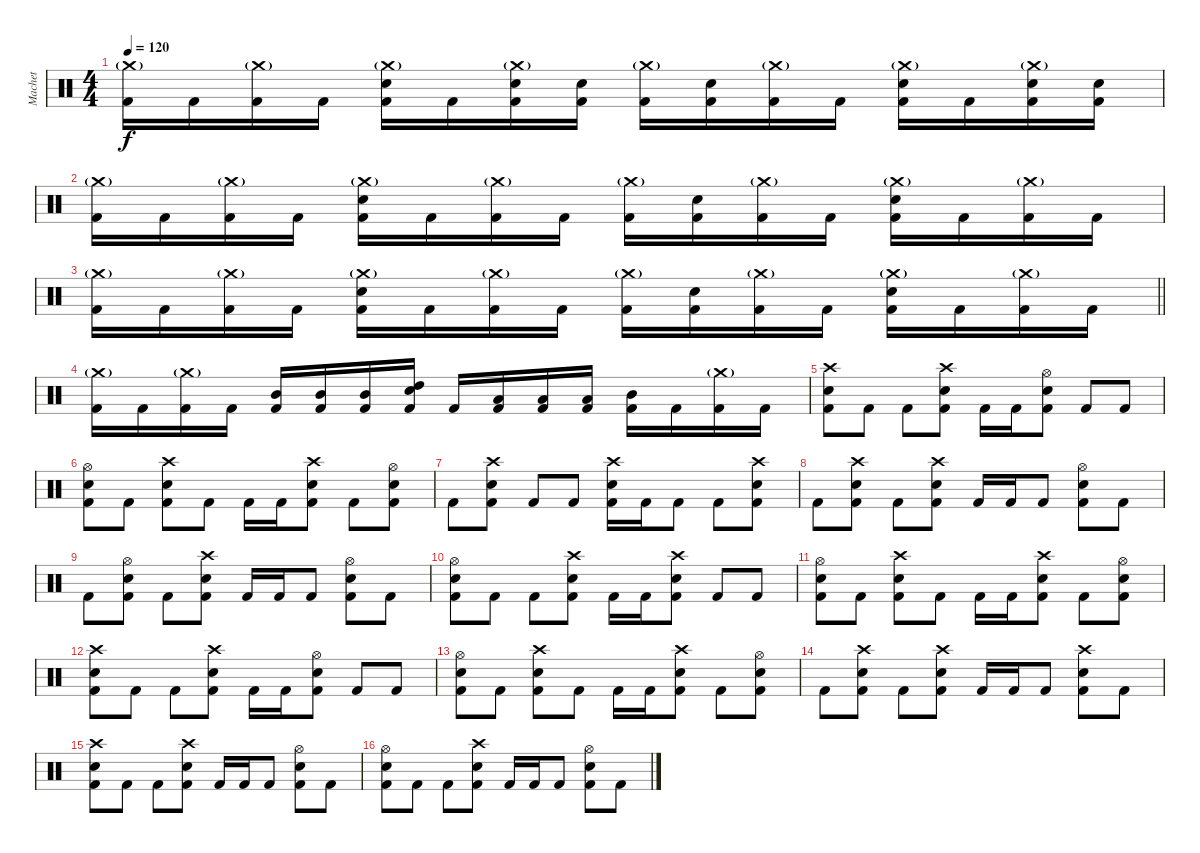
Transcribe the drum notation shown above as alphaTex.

\track ("Machet" "Machet") {instrument percussion}
\staff {score}
\articulation defaults
\ts (4 4)
\tempo 120
\clef neutral
\ks c
("Crash medium (hit)"{g} "Kick (hit) 2").16{dy f} "Kick (hit) 2".16 ("Crash medium (hit)"{g} "Kick (hit) 2").16 "Kick (hit) 2".16 ("Crash medium (hit)"{g} "Snare (hit) 2" "Kick (hit) 2").16 "Kick (hit) 2".16 ("Crash medium (hit)"{g} "Snare (hit) 2" "Kick (hit) 2").16 ("Snare (hit) 2" "Kick (hit) 2").16 ("Crash medium (hit)"{g} "Kick (hit) 2").16 ("Snare (hit) 2" "Kick (hit) 2").16 ("Crash medium (hit)"{g} "Kick (hit) 2").16 "Kick (hit) 2".16 ("Crash medium (hit)"{g} "Snare (hit) 2" "Kick (hit) 2").16 "Kick (hit) 2".16 ("Crash medium (hit)"{g} "Snare (hit) 2" "Kick (hit) 2").16 ("Snare (hit) 2" "Kick (hit) 2").16 |
("Crash medium (hit)"{g} "Kick (hit) 2").16 "Kick (hit) 2".16 ("Crash medium (hit)"{g} "Kick (hit) 2").16 "Kick (hit) 2".16 ("Crash medium (hit)"{g} "Snare (hit) 2" "Kick (hit) 2").16 "Kick (hit) 2".16 ("Crash medium (hit)"{g} "Kick (hit) 2").16 "Kick (hit) 2".16 ("Crash medium (hit)"{g} "Kick (hit) 2").16 ("Snare (hit) 2" "Kick (hit) 2").16 ("Crash medium (hit)"{g} "Kick (hit) 2").16 "Kick (hit) 2".16 ("Crash medium (hit)"{g} "Snare (hit) 2" "Kick (hit) 2").16 "Kick (hit) 2".16 ("Crash medium (hit)"{g} "Kick (hit) 2").16 "Kick (hit) 2".16 |
\barLineRight lightlight
("Crash medium (hit)"{g} "Kick (hit) 2").16 "Kick (hit) 2".16 ("Crash medium (hit)"{g} "Kick (hit) 2").16 "Kick (hit) 2".16 ("Crash medium (hit)"{g} "Snare (hit) 2" "Kick (hit) 2").16 "Kick (hit) 2".16 ("Crash medium (hit)"{g} "Kick (hit) 2").16 "Kick (hit) 2".16 ("Crash medium (hit)"{g} "Kick (hit) 2").16 ("Snare (hit) 2" "Kick (hit) 2").16 ("Crash medium (hit)"{g} "Kick (hit) 2").16 "Kick (hit) 2".16 ("Crash medium (hit)"{g} "Snare (hit) 2" "Kick (hit) 2").16 "Kick (hit) 2".16 ("Crash medium (hit)"{g} "Kick (hit) 2").16 "Kick (hit) 2".16 |
("Crash medium (hit)"{g} "Kick (hit) 2").16 "Kick (hit) 2".16 ("Crash medium (hit)"{g} "Kick (hit) 2").16 "Kick (hit) 2".16 ("Mid Tom (hit)" "Kick (hit) 2").16 ("Mid Tom (hit)" "Kick (hit) 2").16 ("Mid Tom (hit)" "Kick (hit) 2").16 ("High Tom (hit)" "Snare (hit) 2" "Kick (hit) 2").16 "Kick (hit) 2".16 ("Low Tom (hit)" "Kick (hit) 2").16 ("Low Tom (hit)" "Kick (hit) 2").16 ("Low Tom (hit)" "Kick (hit) 2").16 ("Mid Tom (hit)" "Kick (hit) 2").16 "Kick (hit) 2".16 ("Crash medium (hit)"{g} "Kick (hit) 2").16 "Kick (hit) 2".16 |
("Crash high (hit)" "Snare (hit) 2" "Kick (hit) 2").8 "Kick (hit) 2".8 "Kick (hit) 2".8 ("Crash high (hit)" "Snare (hit) 2" "Kick (hit) 2").8 "Kick (hit) 2".16 "Kick (hit) 2".16 ("Hi-Hat (open)" "Snare (hit) 2" "Kick (hit) 2").8 "Kick (hit) 2".8 "Kick (hit) 2".8 |
("Hi-Hat (open)" "Snare (hit) 2" "Kick (hit) 2").8 "Kick (hit) 2".8 ("Crash high (hit)" "Snare (hit) 2" "Kick (hit) 2").8 "Kick (hit) 2".8 "Kick (hit) 2".16 "Kick (hit) 2".16 ("Crash high (hit)" "Snare (hit) 2" "Kick (hit) 2").8 "Kick (hit) 2".8 ("Hi-Hat (open)" "Snare (hit) 2" "Kick (hit) 2").8 |
"Kick (hit) 2".8 ("Crash high (hit)" "Snare (hit) 2" "Kick (hit) 2").8 "Kick (hit) 2".8 "Kick (hit) 2".8 ("Crash high (hit)" "Snare (hit) 2" "Kick (hit) 2").16 "Kick (hit) 2".16 "Kick (hit) 2".8 "Kick (hit) 2".8 ("Crash high (hit)" "Snare (hit) 2" "Kick (hit) 2").8 |
"Kick (hit) 2".8 ("Crash high (hit)" "Snare (hit) 2" "Kick (hit) 2").8 "Kick (hit) 2".8 ("Crash high (hit)" "Snare (hit) 2" "Kick (hit) 2").8 "Kick (hit) 2".16 "Kick (hit) 2".16 "Kick (hit) 2".8 ("Hi-Hat (open)" "Snare (hit) 2" "Kick (hit) 2").8 "Kick (hit) 2".8 |
"Kick (hit) 2".8 ("Hi-Hat (open)" "Snare (hit) 2" "Kick (hit) 2").8 "Kick (hit) 2".8 ("Crash high (hit)" "Snare (hit) 2" "Kick (hit) 2").8 "Kick (hit) 2".16 "Kick (hit) 2".16 "Kick (hit) 2".8 ("Hi-Hat (open)" "Snare (hit) 2" "Kick (hit) 2").8 "Kick (hit) 2".8 |
("Hi-Hat (open)" "Snare (hit) 2" "Kick (hit) 2").8 "Kick (hit) 2".8 "Kick (hit) 2".8 ("Crash high (hit)" "Snare (hit) 2" "Kick (hit) 2").8 "Kick (hit) 2".16 "Kick (hit) 2".16 ("Crash high (hit)" "Snare (hit) 2" "Kick (hit) 2").8 "Kick (hit) 2".8 "Kick (hit) 2".8 |
("Hi-Hat (open)" "Snare (hit) 2" "Kick (hit) 2").8 "Kick (hit) 2".8 ("Crash high (hit)" "Snare (hit) 2" "Kick (hit) 2").8 "Kick (hit) 2".8 "Kick (hit) 2".16 "Kick (hit) 2".16 ("Crash high (hit)" "Snare (hit) 2" "Kick (hit) 2").8 "Kick (hit) 2".8 ("Hi-Hat (open)" "Snare (hit) 2" "Kick (hit) 2").8 |
("Crash high (hit)" "Snare (hit) 2" "Kick (hit) 2").8 "Kick (hit) 2".8 "Kick (hit) 2".8 ("Crash high (hit)" "Snare (hit) 2" "Kick (hit) 2").8 "Kick (hit) 2".16 "Kick (hit) 2".16 ("Hi-Hat (open)" "Snare (hit) 2" "Kick (hit) 2").8 "Kick (hit) 2".8 "Kick (hit) 2".8 |
("Hi-Hat (open)" "Snare (hit) 2" "Kick (hit) 2").8 "Kick (hit) 2".8 ("Crash high (hit)" "Snare (hit) 2" "Kick (hit) 2").8 "Kick (hit) 2".8 "Kick (hit) 2".16 "Kick (hit) 2".16 ("Crash high (hit)" "Snare (hit) 2" "Kick (hit) 2").8 "Kick (hit) 2".8 ("Hi-Hat (open)" "Snare (hit) 2" "Kick (hit) 2").8 |
"Kick (hit) 2".8 ("Crash high (hit)" "Snare (hit) 2" "Kick (hit) 2").8 "Kick (hit) 2".8 ("Crash high (hit)" "Snare (hit) 2" "Kick (hit) 2").8 "Kick (hit) 2".16 "Kick (hit) 2".16 "Kick (hit) 2".8 ("Crash high (hit)" "Snare (hit) 2" "Kick (hit) 2").8 "Kick (hit) 2".8 |
("Crash high (hit)" "Snare (hit) 2" "Kick (hit) 2").8 "Kick (hit) 2".8 "Kick (hit) 2".8 ("Crash high (hit)" "Snare (hit) 2" "Kick (hit) 2").8 "Kick (hit) 2".16 "Kick (hit) 2".16 "Kick (hit) 2".8 ("Hi-Hat (open)" "Snare (hit) 2" "Kick (hit) 2").8 "Kick (hit) 2".8 |
("Hi-Hat (open)" "Snare (hit) 2" "Kick (hit) 2").8 "Kick (hit) 2".8 "Kick (hit) 2".8 ("Crash high (hit)" "Snare (hit) 2" "Kick (hit) 2").8 "Kick (hit) 2".16 "Kick (hit) 2".16 "Kick (hit) 2".8 ("Hi-Hat (open)" "Snare (hit) 2" "Kick (hit) 2").8 "Kick (hit) 2".8
